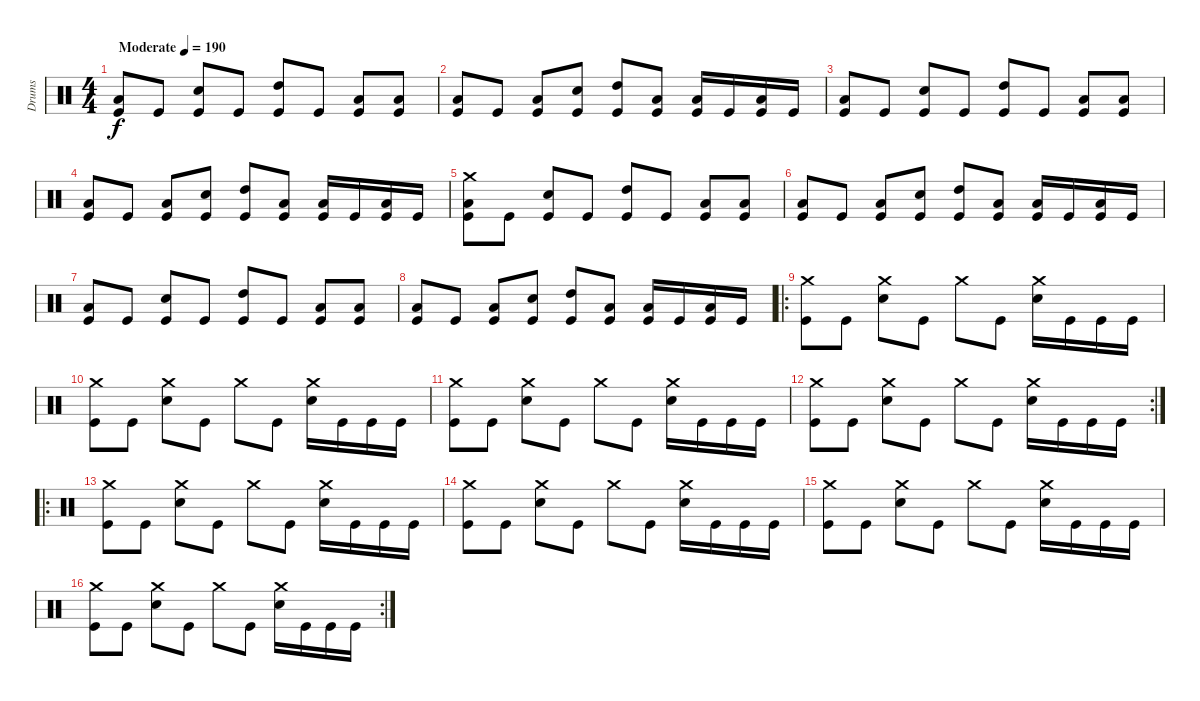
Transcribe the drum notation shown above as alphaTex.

\track ("Drums" "Drums") {instrument percussion}
\staff {score}
\articulation defaults
\ts (4 4)
\tempo (190 "Moderate")
\clef neutral
\ks c
("Low Floor Tom (hit)" "Kick (hit)").8{dy f} "Kick (hit)".8 ("Snare (hit) 2" "Kick (hit)").8 "Kick (hit)".8 ("High Tom (hit)" "Kick (hit)").8 "Kick (hit)".8 ("Low Tom (hit)" "Kick (hit)").8 ("Low Floor Tom (hit)" "Kick (hit)").8 |
("Low Floor Tom (hit)" "Kick (hit)").8 "Kick (hit)".8 ("Low Floor Tom (hit)" "Kick (hit)").8 ("Snare (hit) 2" "Kick (hit)").8 ("High Tom (hit)" "Kick (hit)").8 ("Low Tom (hit)" "Kick (hit)").8 ("Low Tom (hit)" "Kick (hit)").16 "Kick (hit)".16 ("Low Floor Tom (hit)" "Kick (hit)").16 "Kick (hit)".16 |
("Low Floor Tom (hit)" "Kick (hit)").8 "Kick (hit)".8 ("Snare (hit) 2" "Kick (hit)").8 "Kick (hit)".8 ("High Tom (hit)" "Kick (hit)").8 "Kick (hit)".8 ("Low Tom (hit)" "Kick (hit)").8 ("Low Floor Tom (hit)" "Kick (hit)").8 |
("Low Floor Tom (hit)" "Kick (hit)").8 "Kick (hit)".8 ("Low Floor Tom (hit)" "Kick (hit)").8 ("Snare (hit) 2" "Kick (hit)").8 ("High Tom (hit)" "Kick (hit)").8 ("Low Tom (hit)" "Kick (hit)").8 ("Low Tom (hit)" "Kick (hit)").16 "Kick (hit)".16 ("Low Floor Tom (hit)" "Kick (hit)").16 "Kick (hit)".16 |
("Crash medium (hit)" "Low Floor Tom (hit)" "Kick (hit)").8 "Kick (hit)".8 ("Snare (hit) 2" "Kick (hit)").8 "Kick (hit)".8 ("High Tom (hit)" "Kick (hit)").8 "Kick (hit)".8 ("Low Tom (hit)" "Kick (hit)").8 ("Low Floor Tom (hit)" "Kick (hit)").8 |
("Low Floor Tom (hit)" "Kick (hit)").8 "Kick (hit)".8 ("Low Floor Tom (hit)" "Kick (hit)").8 ("Snare (hit) 2" "Kick (hit)").8 ("High Tom (hit)" "Kick (hit)").8 ("Low Tom (hit)" "Kick (hit)").8 ("Low Tom (hit)" "Kick (hit)").16 "Kick (hit)".16 ("Low Floor Tom (hit)" "Kick (hit)").16 "Kick (hit)".16 |
("Low Floor Tom (hit)" "Kick (hit)").8 "Kick (hit)".8 ("Snare (hit) 2" "Kick (hit)").8 "Kick (hit)".8 ("High Tom (hit)" "Kick (hit)").8 "Kick (hit)".8 ("Low Tom (hit)" "Kick (hit)").8 ("Low Floor Tom (hit)" "Kick (hit)").8 |
("Low Floor Tom (hit)" "Kick (hit)").8 "Kick (hit)".8 ("Low Floor Tom (hit)" "Kick (hit)").8 ("Snare (hit) 2" "Kick (hit)").8 ("High Tom (hit)" "Kick (hit)").8 ("Low Tom (hit)" "Kick (hit)").8 ("Low Tom (hit)" "Kick (hit)").16 "Kick (hit)".16 ("Low Floor Tom (hit)" "Kick (hit)").16 "Kick (hit)".16 |
\ro
("Crash medium (hit)" "Kick (hit)").8 "Kick (hit)".8 ("Crash medium (hit)" "Snare (hit) 2").8 "Kick (hit)".8 "Crash medium (hit)".8 "Kick (hit)".8 ("Crash medium (hit)" "Snare (hit) 2").16 "Kick (hit)".16 "Kick (hit)".16 "Kick (hit)".16 |
("Crash medium (hit)" "Kick (hit)").8 "Kick (hit)".8 ("Crash medium (hit)" "Snare (hit) 2").8 "Kick (hit)".8 "Crash medium (hit)".8 "Kick (hit)".8 ("Crash medium (hit)" "Snare (hit) 2").16 "Kick (hit)".16 "Kick (hit)".16 "Kick (hit)".16 |
("Crash medium (hit)" "Kick (hit)").8 "Kick (hit)".8 ("Crash medium (hit)" "Snare (hit) 2").8 "Kick (hit)".8 "Crash medium (hit)".8 "Kick (hit)".8 ("Crash medium (hit)" "Snare (hit) 2").16 "Kick (hit)".16 "Kick (hit)".16 "Kick (hit)".16 |
\rc 2
("Crash medium (hit)" "Kick (hit)").8 "Kick (hit)".8 ("Crash medium (hit)" "Snare (hit) 2").8 "Kick (hit)".8 "Crash medium (hit)".8 "Kick (hit)".8 ("Crash medium (hit)" "Snare (hit) 2").16 "Kick (hit)".16 "Kick (hit)".16 "Kick (hit)".16 |
\ro
("Crash medium (hit)" "Kick (hit)").8 "Kick (hit)".8 ("Crash medium (hit)" "Snare (hit) 2").8 "Kick (hit)".8 "Crash medium (hit)".8 "Kick (hit)".8 ("Crash medium (hit)" "Snare (hit) 2").16 "Kick (hit)".16 "Kick (hit)".16 "Kick (hit)".16 |
("Crash medium (hit)" "Kick (hit)").8 "Kick (hit)".8 ("Crash medium (hit)" "Snare (hit) 2").8 "Kick (hit)".8 "Crash medium (hit)".8 "Kick (hit)".8 ("Crash medium (hit)" "Snare (hit) 2").16 "Kick (hit)".16 "Kick (hit)".16 "Kick (hit)".16 |
("Crash medium (hit)" "Kick (hit)").8 "Kick (hit)".8 ("Crash medium (hit)" "Snare (hit) 2").8 "Kick (hit)".8 "Crash medium (hit)".8 "Kick (hit)".8 ("Crash medium (hit)" "Snare (hit) 2").16 "Kick (hit)".16 "Kick (hit)".16 "Kick (hit)".16 |
\rc 2
("Crash medium (hit)" "Kick (hit)").8 "Kick (hit)".8 ("Crash medium (hit)" "Snare (hit) 2").8 "Kick (hit)".8 "Crash medium (hit)".8 "Kick (hit)".8 ("Crash medium (hit)" "Snare (hit) 2").16 "Kick (hit)".16 "Kick (hit)".16 "Kick (hit)".16
